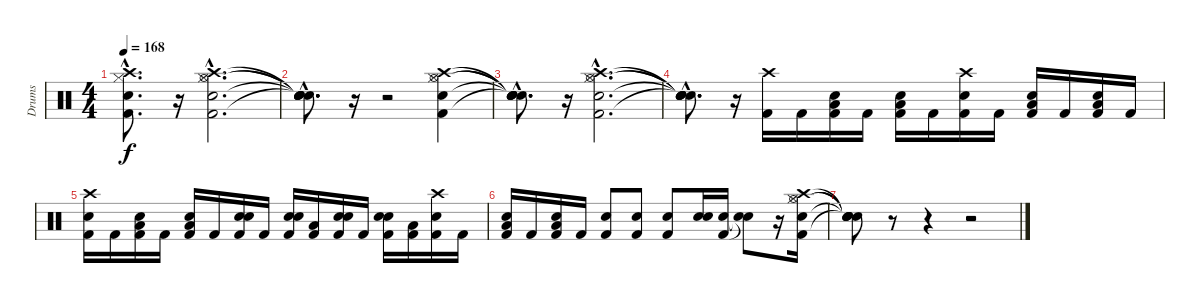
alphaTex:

\track ("Drums" "Drums") {instrument percussion}
\staff {score}
\articulation defaults
\ts (4 4)
\tempo 168
\clef neutral
\ks c
("Snare (hit)"{hac} "Kick (hit) 2"{hac} "Hi-Hat (closed)"{hac} "Crash high (hit)"{hac}).8{d dy f} r.16 ("Kick (hit) 2"{hac} "Snare (hit) 2"{hac} "Hi-Hat (closed)"{hac} "Hi-Hat (open)"{hac} "Crash high (hit)"{hac}).2{d} |
("Snare (hit)"{hac t} "Snare (hit)"{hac t} "Snare (hit)"{hac t} "Snare (hit)"{hac t} "Snare (hit)"{hac t}).8{d} r.16 r.2 ("Kick (hit) 2" "Snare (hit) 2" "Hi-Hat (closed)" "Hi-Hat (open)" "Crash high (hit)").4 |
("Snare (hit)"{hac t} "Snare (hit)"{hac t} "Snare (hit)"{hac t} "Snare (hit)"{hac t} "Snare (hit)"{hac t}).8{d} r.16 ("Kick (hit) 2"{hac} "Snare (hit) 2"{hac} "Hi-Hat (closed)"{hac} "Hi-Hat (open)"{hac} "Crash high (hit)"{hac}).2{d} |
("Snare (hit)"{hac t} "Snare (hit)"{hac t} "Snare (hit)"{hac t} "Snare (hit)"{hac t} "Snare (hit)"{hac t}).8{d} r.16 ("Kick (hit) 2" "Crash high (hit)").16 "Kick (hit) 2".16 ("Snare (hit)" "Kick (hit) 2" "Low Tom (hit)").16 "Kick (hit) 2".16 ("Snare (hit)" "Kick (hit) 2" "Low Floor Tom (hit)").16 "Kick (hit) 2".16 ("Snare (hit)" "Kick (hit) 2" "Crash high (hit)").16 "Kick (hit) 2".16 ("Snare (hit)" "Kick (hit) 2" "Low Tom (hit)").16 "Kick (hit) 2".16 ("Snare (hit)" "Kick (hit) 2" "Low Floor Tom (hit)").16 "Kick (hit) 2".16 |
("Snare (hit)" "Kick (hit) 2" "Crash high (hit)").16 "Kick (hit) 2".16 ("Snare (hit)" "Kick (hit) 2" "Low Tom (hit)").16 "Kick (hit) 2".16 ("Snare (hit)" "Kick (hit) 2" "Low Floor Tom (hit)").16 "Kick (hit) 2".16 ("Snare (hit)" "Kick (hit) 2" "Snare (hit) 2").16 "Kick (hit) 2".16 ("Snare (hit)" "Kick (hit) 2" "Snare (hit) 2").16 ("Kick (hit) 2" "Low Floor Tom (hit)").16 ("Snare (hit)" "Kick (hit) 2" "Snare (hit) 2").16 "Kick (hit) 2".16 ("Snare (hit)" "Kick (hit) 2" "Snare (hit) 2").16 ("Kick (hit) 2" "Low Floor Tom (hit)").16 ("Snare (hit)" "Kick (hit) 2" "Crash high (hit)").16 "Kick (hit) 2".16 |
("Snare (hit)" "Kick (hit) 2" "Low Tom (hit)").16 "Kick (hit) 2".16 ("Snare (hit)" "Kick (hit) 2" "Low Floor Tom (hit)").16 "Kick (hit) 2".16 ("Snare (hit)" "Kick (hit) 2").8 ("Snare (hit)" "Kick (hit) 2").8 ("Snare (hit)" "Kick (hit) 2").8 ("Snare (hit)" "Snare (hit) 2").16 ("Snare (hit)" "Kick (hit) 2").16 ("Snare (hit)"{t} "Snare (hit)"{t}).8 r.16 ("Kick (hit) 2" "Snare (hit) 2" "Hi-Hat (closed)" "Hi-Hat (open)" "Crash high (hit)").16 |
("Snare (hit)"{t} "Snare (hit)"{t} "Snare (hit)"{t} "Snare (hit)"{t} "Snare (hit)"{t}).8 r.8 r.4 r.2
